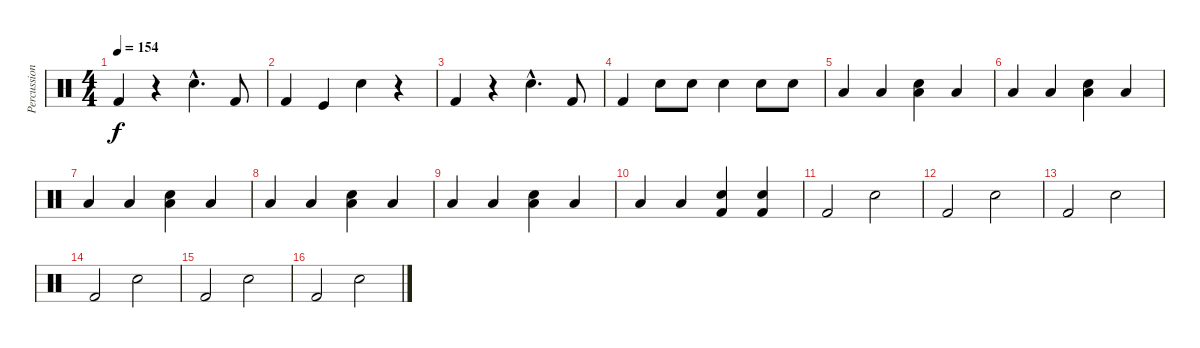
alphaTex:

\track ("Percussion" "Percussion") {instrument percussion}
\staff {score}
\articulation defaults
\ts (4 4)
\tempo 154
\clef neutral
\ks c "Kick (hit) 2".4{dy f}
r.4 "Snare (hit) 2"{hac}.4{d} "Kick (hit) 2".8 |
"Kick (hit) 2".4 "Kick (hit)".4 "Snare (hit) 2".4 r.4 |
"Kick (hit) 2".4 r.4 "Snare (hit) 2"{hac}.4{d} "Kick (hit) 2".8 |
"Kick (hit) 2".4 "Snare (hit) 2".8 "Snare (hit) 2".8 "Snare (hit) 2".4 "Snare (hit) 2".8 "Snare (hit) 2".8 |
"Low Floor Tom (hit)".4 "Low Floor Tom (hit)".4 ("Low Floor Tom (hit)" "Snare (hit) 2").4 "Low Tom (hit)".4 |
"Low Floor Tom (hit)".4 "Low Floor Tom (hit)".4 ("Low Floor Tom (hit)" "Snare (hit) 2").4 "Low Tom (hit)".4 |
"Low Floor Tom (hit)".4 "Low Floor Tom (hit)".4 ("Low Floor Tom (hit)" "Snare (hit) 2").4 "Low Tom (hit)".4 |
"Low Floor Tom (hit)".4 "Low Floor Tom (hit)".4 ("Low Floor Tom (hit)" "Snare (hit) 2").4 "Low Tom (hit)".4 |
"Low Floor Tom (hit)".4 "Low Floor Tom (hit)".4 ("Low Floor Tom (hit)" "Snare (hit) 2").4 "Low Tom (hit)".4 |
"Low Floor Tom (hit)".4 "Low Floor Tom (hit)".4 ("Kick (hit) 2" "Snare (hit) 2").4 ("Kick (hit) 2" "Snare (hit) 2").4 |
"Kick (hit) 2".2 "Snare (hit) 2".2 |
"Kick (hit) 2".2 "Snare (hit) 2".2 |
"Kick (hit) 2".2 "Snare (hit) 2".2 |
"Kick (hit) 2".2 "Snare (hit) 2".2 |
"Kick (hit) 2".2 "Snare (hit) 2".2 |
"Kick (hit) 2".2 "Snare (hit) 2".2
